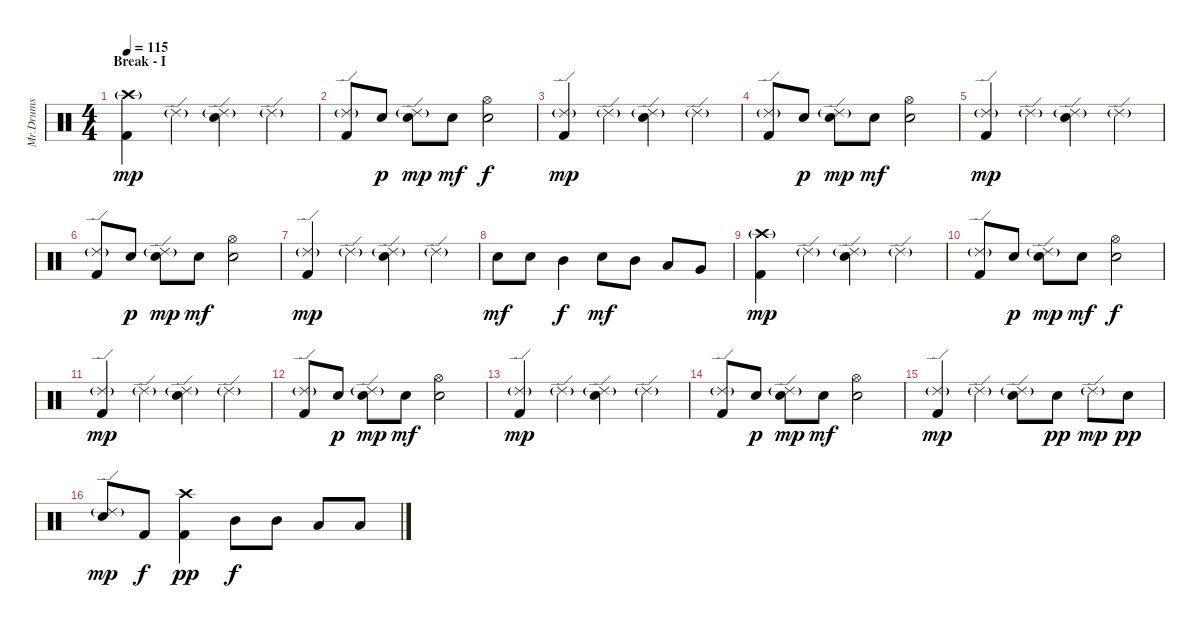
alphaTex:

\track ("Mr.Drums" "Mr.Drums") {instrument percussion}
\staff {score}
\articulation defaults
\ts (4 4)
\section ("" "Break - I")
\tempo 115
\clef neutral
\ks c
("Crash high (hit)"{g} "Kick (hit) 2").4{dy mp} "Ride (edge) 2"{g}.4 ("Ride (edge) 2"{g} "Electric Snare (hit)").4 "Ride (edge) 2"{g}.4 |
("Ride (edge) 2"{g} "Kick (hit) 2").8 "Electric Snare (hit)".8{dy p} ("Ride (edge) 2"{g} "Electric Snare (hit)").8{dy mp} "Electric Snare (hit)".8{dy mf} ("Hi-Hat (open)" "Electric Snare (hit)").2{dy f} |
("Ride (edge) 2"{g} "Kick (hit) 2").4{dy mp} "Ride (edge) 2"{g}.4 ("Ride (edge) 2"{g} "Electric Snare (hit)").4 "Ride (edge) 2"{g}.4 |
("Ride (edge) 2"{g} "Kick (hit) 2").8 "Electric Snare (hit)".8{dy p} ("Ride (edge) 2"{g} "Electric Snare (hit)").8{dy mp} "Electric Snare (hit)".8{dy mf} ("Hi-Hat (open)" "Electric Snare (hit)").2 |
("Ride (edge) 2"{g} "Kick (hit) 2").4{dy mp} "Ride (edge) 2"{g}.4 ("Ride (edge) 2"{g} "Electric Snare (hit)").4 "Ride (edge) 2"{g}.4 |
("Ride (edge) 2"{g} "Kick (hit) 2").8 "Electric Snare (hit)".8{dy p} ("Ride (edge) 2"{g} "Electric Snare (hit)").8{dy mp} "Electric Snare (hit)".8{dy mf} ("Hi-Hat (open)" "Electric Snare (hit)").2 |
("Ride (edge) 2"{g} "Kick (hit) 2").4{dy mp} "Ride (edge) 2"{g}.4 ("Ride (edge) 2"{g} "Electric Snare (hit)").4 "Ride (edge) 2"{g}.4 |
"Electric Snare (hit)".8{dy mf} "Electric Snare (hit)".8 "Mid Tom (hit)".4{dy f} "Electric Snare (hit)".8{dy mf} "Mid Tom (hit)".8 "Low Tom (hit)".8 "Very Low Tom (hit)".8 |
("Crash high (hit)"{g} "Kick (hit) 2").4{dy mp} "Ride (edge) 2"{g}.4 ("Ride (edge) 2"{g} "Electric Snare (hit)").4 "Ride (edge) 2"{g}.4 |
("Ride (edge) 2"{g} "Kick (hit) 2").8 "Electric Snare (hit)".8{dy p} ("Ride (edge) 2"{g} "Electric Snare (hit)").8{dy mp} "Electric Snare (hit)".8{dy mf} ("Hi-Hat (open)" "Electric Snare (hit)").2{dy f} |
("Ride (edge) 2"{g} "Kick (hit) 2").4{dy mp} "Ride (edge) 2"{g}.4 ("Ride (edge) 2"{g} "Electric Snare (hit)").4 "Ride (edge) 2"{g}.4 |
("Ride (edge) 2"{g} "Kick (hit) 2").8 "Electric Snare (hit)".8{dy p} ("Ride (edge) 2"{g} "Electric Snare (hit)").8{dy mp} "Electric Snare (hit)".8{dy mf} ("Hi-Hat (open)" "Electric Snare (hit)").2 |
("Ride (edge) 2"{g} "Kick (hit) 2").4{dy mp} "Ride (edge) 2"{g}.4 ("Ride (edge) 2"{g} "Electric Snare (hit)").4 "Ride (edge) 2"{g}.4 |
("Ride (edge) 2"{g} "Kick (hit) 2").8 "Electric Snare (hit)".8{dy p} ("Ride (edge) 2"{g} "Electric Snare (hit)").8{dy mp} "Electric Snare (hit)".8{dy mf} ("Hi-Hat (open)" "Electric Snare (hit)").2 |
("Ride (edge) 2"{g} "Kick (hit) 2").4{dy mp} "Ride (edge) 2"{g}.4 ("Ride (edge) 2"{g} "Electric Snare (hit)").8 "Electric Snare (hit)".8{dy pp} "Ride (edge) 2"{g}.8{dy mp} "Electric Snare (hit)".8{dy pp} |
("Ride (edge) 2"{g} "Electric Snare (hit)").8{dy mp} "Kick (hit) 2".8{dy f} ("Crash high (hit)" "Kick (hit) 2").4{dy pp} "Mid Tom (hit)".8{dy f} "Mid Tom (hit)".8 "Low Tom (hit)".8 "Low Tom (hit)".8
